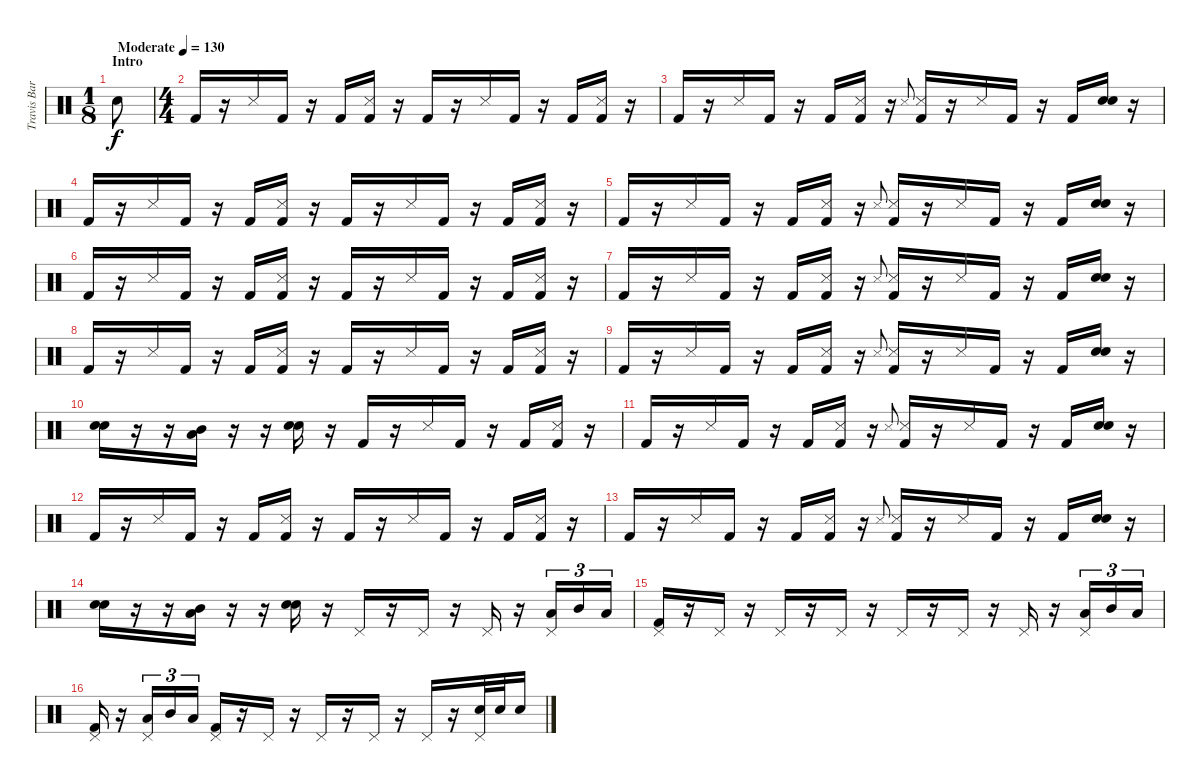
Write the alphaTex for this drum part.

\track ("Travis Barker [Drums]" "Travis Bar") {instrument percussion}
\staff {score}
\articulation defaults
\ts (1 8)
\section ("" "Intro")
\tempo (130 "Moderate")
\clef neutral
\ks c "Electric Snare (hit)".8{dy f}
|
\ts (4 4)
"Kick (hit) 2".16 r.16 "Snare (side stick) 3".16 "Kick (hit) 2".16 r.16 "Kick (hit) 2".16 ("Snare (side stick) 3" "Kick (hit) 2").16 r.16 "Kick (hit) 2".16 r.16 "Snare (side stick) 3".16 "Kick (hit) 2".16 r.16 "Kick (hit) 2".16 ("Snare (side stick) 3" "Kick (hit) 2").16 r.16 |
"Kick (hit) 2".16 r.16 "Snare (side stick) 3".16 "Kick (hit) 2".16 r.16 "Kick (hit) 2".16 ("Snare (side stick) 3" "Kick (hit) 2").16 r.16 "Snare (side stick) 3"{x}.8{gr onbeat} ("Snare (side stick) 3" "Kick (hit) 2").16 r.16 "Snare (side stick) 3".16 "Kick (hit) 2".16 r.16 "Kick (hit) 2".16 ("Electric Snare (hit)" "Electric Snare (hit)").16 r.16 |
"Kick (hit) 2".16 r.16 "Snare (side stick) 3".16 "Kick (hit) 2".16 r.16 "Kick (hit) 2".16 ("Snare (side stick) 3" "Kick (hit) 2").16 r.16 "Kick (hit) 2".16 r.16 "Snare (side stick) 3".16 "Kick (hit) 2".16 r.16 "Kick (hit) 2".16 ("Snare (side stick) 3" "Kick (hit) 2").16 r.16 |
"Kick (hit) 2".16 r.16 "Snare (side stick) 3".16 "Kick (hit) 2".16 r.16 "Kick (hit) 2".16 ("Snare (side stick) 3" "Kick (hit) 2").16 r.16 "Snare (side stick) 3"{x}.8{gr onbeat} ("Snare (side stick) 3" "Kick (hit) 2").16 r.16 "Snare (side stick) 3".16 "Kick (hit) 2".16 r.16 "Kick (hit) 2".16 ("Electric Snare (hit)" "Electric Snare (hit)").16 r.16 |
"Kick (hit) 2".16 r.16 "Snare (side stick) 3".16 "Kick (hit) 2".16 r.16 "Kick (hit) 2".16 ("Snare (side stick) 3" "Kick (hit) 2").16 r.16 "Kick (hit) 2".16 r.16 "Snare (side stick) 3".16 "Kick (hit) 2".16 r.16 "Kick (hit) 2".16 ("Snare (side stick) 3" "Kick (hit) 2").16 r.16 |
"Kick (hit) 2".16 r.16 "Snare (side stick) 3".16 "Kick (hit) 2".16 r.16 "Kick (hit) 2".16 ("Snare (side stick) 3" "Kick (hit) 2").16 r.16 "Snare (side stick) 3"{x}.8{gr onbeat} ("Snare (side stick) 3" "Kick (hit) 2").16 r.16 "Snare (side stick) 3".16 "Kick (hit) 2".16 r.16 "Kick (hit) 2".16 ("Electric Snare (hit)" "Electric Snare (hit)").16 r.16 |
"Kick (hit) 2".16 r.16 "Snare (side stick) 3".16 "Kick (hit) 2".16 r.16 "Kick (hit) 2".16 ("Snare (side stick) 3" "Kick (hit) 2").16 r.16 "Kick (hit) 2".16 r.16 "Snare (side stick) 3".16 "Kick (hit) 2".16 r.16 "Kick (hit) 2".16 ("Snare (side stick) 3" "Kick (hit) 2").16 r.16 |
"Kick (hit) 2".16 r.16 "Snare (side stick) 3".16 "Kick (hit) 2".16 r.16 "Kick (hit) 2".16 ("Snare (side stick) 3" "Kick (hit) 2").16 r.16 "Snare (side stick) 3"{x}.8{gr onbeat} ("Snare (side stick) 3" "Kick (hit) 2").16 r.16 "Snare (side stick) 3".16 "Kick (hit) 2".16 r.16 "Kick (hit) 2".16 ("Electric Snare (hit)" "Electric Snare (hit)").16 r.16 |
("Electric Snare (hit)" "Electric Snare (hit)").16 r.16 r.16 ("Low Tom (hit)" "Mid Tom (hit)").16 r.16 r.16 ("Electric Snare (hit)" "Electric Snare (hit)").16 r.16 "Kick (hit) 2".16 r.16 "Snare (side stick) 3".16 "Kick (hit) 2".16 r.16 "Kick (hit) 2".16 ("Snare (side stick) 3" "Kick (hit) 2").16 r.16 |
"Kick (hit) 2".16 r.16 "Snare (side stick) 3".16 "Kick (hit) 2".16 r.16 "Kick (hit) 2".16 ("Snare (side stick) 3" "Kick (hit) 2").16 r.16 "Snare (side stick) 3"{x}.8{gr onbeat} ("Snare (side stick) 3" "Kick (hit) 2").16 r.16 "Snare (side stick) 3".16 "Kick (hit) 2".16 r.16 "Kick (hit) 2".16 ("Electric Snare (hit)" "Electric Snare (hit)").16 r.16 |
"Kick (hit) 2".16 r.16 "Snare (side stick) 3".16 "Kick (hit) 2".16 r.16 "Kick (hit) 2".16 ("Snare (side stick) 3" "Kick (hit) 2").16 r.16 "Kick (hit) 2".16 r.16 "Snare (side stick) 3".16 "Kick (hit) 2".16 r.16 "Kick (hit) 2".16 ("Snare (side stick) 3" "Kick (hit) 2").16 r.16 |
"Kick (hit) 2".16 r.16 "Snare (side stick) 3".16 "Kick (hit) 2".16 r.16 "Kick (hit) 2".16 ("Snare (side stick) 3" "Kick (hit) 2").16 r.16 "Snare (side stick) 3"{x}.8{gr onbeat} ("Snare (side stick) 3" "Kick (hit) 2").16 r.16 "Snare (side stick) 3".16 "Kick (hit) 2".16 r.16 "Kick (hit) 2".16 ("Electric Snare (hit)" "Electric Snare (hit)").16 r.16 |
("Electric Snare (hit)" "Electric Snare (hit)").16 r.16 r.16 ("Low Tom (hit)" "Mid Tom (hit)").16 r.16 r.16 ("Electric Snare (hit)" "Electric Snare (hit)").16 r.16 "Pedal Hi-Hat (hit)".16 r.16 "Pedal Hi-Hat (hit)".16 r.16 "Pedal Hi-Hat (hit)".16 r.16 ("Pedal Hi-Hat (hit)" "Low Floor Tom (hit)").16{tu (3 2)} "Mid Tom (hit)".16{tu (3 2)} "Low Floor Tom (hit)".16{tu (3 2)} |
("Pedal Hi-Hat (hit)" "Kick (hit) 2").16 r.16 "Pedal Hi-Hat (hit)".16 r.16 "Pedal Hi-Hat (hit)".16 r.16 "Pedal Hi-Hat (hit)".16 r.16 "Pedal Hi-Hat (hit)".16 r.16 "Pedal Hi-Hat (hit)".16 r.16 "Pedal Hi-Hat (hit)".16 r.16 ("Pedal Hi-Hat (hit)" "Low Floor Tom (hit)").16{tu (3 2)} "Mid Tom (hit)".16{tu (3 2)} "Low Floor Tom (hit)".16{tu (3 2)} |
("Pedal Hi-Hat (hit)" "Kick (hit) 2").16 r.16 ("Pedal Hi-Hat (hit)" "Low Floor Tom (hit)").16{tu (3 2)} "Mid Tom (hit)".16{tu (3 2)} "Low Floor Tom (hit)".16{tu (3 2)} ("Pedal Hi-Hat (hit)" "Kick (hit) 2").16 r.16 "Pedal Hi-Hat (hit)".16 r.16 "Pedal Hi-Hat (hit)".16 r.16 "Pedal Hi-Hat (hit)".16 r.16 "Pedal Hi-Hat (hit)".16 r.16 ("Pedal Hi-Hat (hit)" "Electric Snare (hit)").32 "Electric Snare (hit)".32 "Electric Snare (hit)".16
